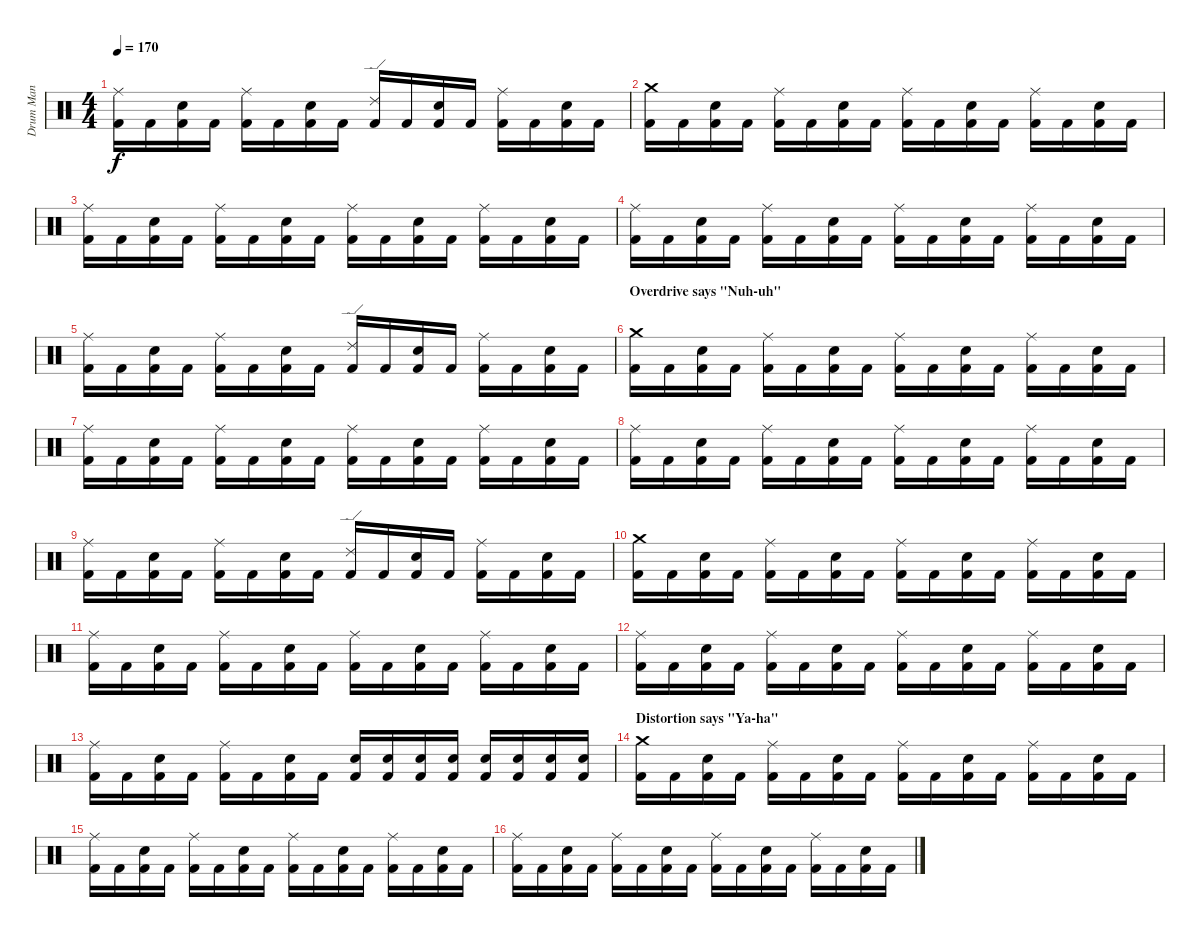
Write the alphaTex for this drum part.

\track ("Drum Man" "Drum Man") {instrument percussion}
\staff {score}
\articulation defaults
\ts (4 4)
\tempo 170
\clef neutral
\ks c
("Ride (middle)" "Kick (hit) 2").16{dy f} "Kick (hit) 2".16 ("Snare (hit) 2" "Kick (hit) 2").16 "Kick (hit) 2".16 ("Ride (middle)" "Kick (hit) 2").16 "Kick (hit) 2".16 ("Snare (hit) 2" "Kick (hit) 2").16 "Kick (hit) 2".16 ("Ride (edge) 2" "Kick (hit) 2").16 "Kick (hit) 2".16 ("Snare (hit) 2" "Kick (hit) 2").16 "Kick (hit) 2".16 ("Ride (middle)" "Kick (hit) 2").16 "Kick (hit) 2".16 ("Snare (hit) 2" "Kick (hit) 2").16 "Kick (hit) 2".16 |
("Crash medium (hit)" "Kick (hit) 2").16 "Kick (hit) 2".16 ("Snare (hit) 2" "Kick (hit) 2").16 "Kick (hit) 2".16 ("Ride (middle)" "Kick (hit) 2").16 "Kick (hit) 2".16 ("Snare (hit) 2" "Kick (hit) 2").16 "Kick (hit) 2".16 ("Ride (middle)" "Kick (hit) 2").16 "Kick (hit) 2".16 ("Snare (hit) 2" "Kick (hit) 2").16 "Kick (hit) 2".16 ("Ride (middle)" "Kick (hit) 2").16 "Kick (hit) 2".16 ("Snare (hit) 2" "Kick (hit) 2").16 "Kick (hit) 2".16 |
("Ride (middle)" "Kick (hit) 2").16 "Kick (hit) 2".16 ("Snare (hit) 2" "Kick (hit) 2").16 "Kick (hit) 2".16 ("Ride (middle)" "Kick (hit) 2").16 "Kick (hit) 2".16 ("Snare (hit) 2" "Kick (hit) 2").16 "Kick (hit) 2".16 ("Ride (middle)" "Kick (hit) 2").16 "Kick (hit) 2".16 ("Snare (hit) 2" "Kick (hit) 2").16 "Kick (hit) 2".16 ("Ride (middle)" "Kick (hit) 2").16 "Kick (hit) 2".16 ("Snare (hit) 2" "Kick (hit) 2").16 "Kick (hit) 2".16 |
("Ride (middle)" "Kick (hit) 2").16 "Kick (hit) 2".16 ("Snare (hit) 2" "Kick (hit) 2").16 "Kick (hit) 2".16 ("Ride (middle)" "Kick (hit) 2").16 "Kick (hit) 2".16 ("Snare (hit) 2" "Kick (hit) 2").16 "Kick (hit) 2".16 ("Ride (middle)" "Kick (hit) 2").16 "Kick (hit) 2".16 ("Snare (hit) 2" "Kick (hit) 2").16 "Kick (hit) 2".16 ("Ride (middle)" "Kick (hit) 2").16 "Kick (hit) 2".16 ("Snare (hit) 2" "Kick (hit) 2").16 "Kick (hit) 2".16 |
("Ride (middle)" "Kick (hit) 2").16 "Kick (hit) 2".16 ("Snare (hit) 2" "Kick (hit) 2").16 "Kick (hit) 2".16 ("Ride (middle)" "Kick (hit) 2").16 "Kick (hit) 2".16 ("Snare (hit) 2" "Kick (hit) 2").16 "Kick (hit) 2".16 ("Ride (edge) 2" "Kick (hit) 2").16 "Kick (hit) 2".16 ("Snare (hit) 2" "Kick (hit) 2").16 "Kick (hit) 2".16 ("Ride (middle)" "Kick (hit) 2").16 "Kick (hit) 2".16 ("Snare (hit) 2" "Kick (hit) 2").16 "Kick (hit) 2".16 |
\section ("" "Overdrive says \"Nuh-uh\"")
("Crash medium (hit)" "Kick (hit) 2").16 "Kick (hit) 2".16 ("Snare (hit) 2" "Kick (hit) 2").16 "Kick (hit) 2".16 ("Ride (middle)" "Kick (hit) 2").16 "Kick (hit) 2".16 ("Snare (hit) 2" "Kick (hit) 2").16 "Kick (hit) 2".16 ("Ride (middle)" "Kick (hit) 2").16 "Kick (hit) 2".16 ("Snare (hit) 2" "Kick (hit) 2").16 "Kick (hit) 2".16 ("Ride (middle)" "Kick (hit) 2").16 "Kick (hit) 2".16 ("Snare (hit) 2" "Kick (hit) 2").16 "Kick (hit) 2".16 |
("Ride (middle)" "Kick (hit) 2").16 "Kick (hit) 2".16 ("Snare (hit) 2" "Kick (hit) 2").16 "Kick (hit) 2".16 ("Ride (middle)" "Kick (hit) 2").16 "Kick (hit) 2".16 ("Snare (hit) 2" "Kick (hit) 2").16 "Kick (hit) 2".16 ("Ride (middle)" "Kick (hit) 2").16 "Kick (hit) 2".16 ("Snare (hit) 2" "Kick (hit) 2").16 "Kick (hit) 2".16 ("Ride (middle)" "Kick (hit) 2").16 "Kick (hit) 2".16 ("Snare (hit) 2" "Kick (hit) 2").16 "Kick (hit) 2".16 |
("Ride (middle)" "Kick (hit) 2").16 "Kick (hit) 2".16 ("Snare (hit) 2" "Kick (hit) 2").16 "Kick (hit) 2".16 ("Ride (middle)" "Kick (hit) 2").16 "Kick (hit) 2".16 ("Snare (hit) 2" "Kick (hit) 2").16 "Kick (hit) 2".16 ("Ride (middle)" "Kick (hit) 2").16 "Kick (hit) 2".16 ("Snare (hit) 2" "Kick (hit) 2").16 "Kick (hit) 2".16 ("Ride (middle)" "Kick (hit) 2").16 "Kick (hit) 2".16 ("Snare (hit) 2" "Kick (hit) 2").16 "Kick (hit) 2".16 |
("Ride (middle)" "Kick (hit) 2").16 "Kick (hit) 2".16 ("Snare (hit) 2" "Kick (hit) 2").16 "Kick (hit) 2".16 ("Ride (middle)" "Kick (hit) 2").16 "Kick (hit) 2".16 ("Snare (hit) 2" "Kick (hit) 2").16 "Kick (hit) 2".16 ("Ride (edge) 2" "Kick (hit) 2").16 "Kick (hit) 2".16 ("Snare (hit) 2" "Kick (hit) 2").16 "Kick (hit) 2".16 ("Ride (middle)" "Kick (hit) 2").16 "Kick (hit) 2".16 ("Snare (hit) 2" "Kick (hit) 2").16 "Kick (hit) 2".16 |
("Crash medium (hit)" "Kick (hit) 2").16 "Kick (hit) 2".16 ("Snare (hit) 2" "Kick (hit) 2").16 "Kick (hit) 2".16 ("Ride (middle)" "Kick (hit) 2").16 "Kick (hit) 2".16 ("Snare (hit) 2" "Kick (hit) 2").16 "Kick (hit) 2".16 ("Ride (middle)" "Kick (hit) 2").16 "Kick (hit) 2".16 ("Snare (hit) 2" "Kick (hit) 2").16 "Kick (hit) 2".16 ("Ride (middle)" "Kick (hit) 2").16 "Kick (hit) 2".16 ("Snare (hit) 2" "Kick (hit) 2").16 "Kick (hit) 2".16 |
("Ride (middle)" "Kick (hit) 2").16 "Kick (hit) 2".16 ("Snare (hit) 2" "Kick (hit) 2").16 "Kick (hit) 2".16 ("Ride (middle)" "Kick (hit) 2").16 "Kick (hit) 2".16 ("Snare (hit) 2" "Kick (hit) 2").16 "Kick (hit) 2".16 ("Ride (middle)" "Kick (hit) 2").16 "Kick (hit) 2".16 ("Snare (hit) 2" "Kick (hit) 2").16 "Kick (hit) 2".16 ("Ride (middle)" "Kick (hit) 2").16 "Kick (hit) 2".16 ("Snare (hit) 2" "Kick (hit) 2").16 "Kick (hit) 2".16 |
("Ride (middle)" "Kick (hit) 2").16 "Kick (hit) 2".16 ("Snare (hit) 2" "Kick (hit) 2").16 "Kick (hit) 2".16 ("Ride (middle)" "Kick (hit) 2").16 "Kick (hit) 2".16 ("Snare (hit) 2" "Kick (hit) 2").16 "Kick (hit) 2".16 ("Ride (middle)" "Kick (hit) 2").16 "Kick (hit) 2".16 ("Snare (hit) 2" "Kick (hit) 2").16 "Kick (hit) 2".16 ("Ride (middle)" "Kick (hit) 2").16 "Kick (hit) 2".16 ("Snare (hit) 2" "Kick (hit) 2").16 "Kick (hit) 2".16 |
("Ride (middle)" "Kick (hit) 2").16 "Kick (hit) 2".16 ("Snare (hit) 2" "Kick (hit) 2").16 "Kick (hit) 2".16 ("Ride (middle)" "Kick (hit) 2").16 "Kick (hit) 2".16 ("Snare (hit) 2" "Kick (hit) 2").16 "Kick (hit) 2".16 ("Electric Snare (hit)" "Kick (hit) 2").16 ("Electric Snare (hit)" "Kick (hit) 2").16 ("Electric Snare (hit)" "Kick (hit) 2").16 ("Electric Snare (hit)" "Kick (hit) 2").16 ("Electric Snare (hit)" "Kick (hit) 2").16 ("Electric Snare (hit)" "Kick (hit) 2").16 ("Electric Snare (hit)" "Kick (hit) 2").16 ("Electric Snare (hit)" "Kick (hit) 2").16 |
\section ("" "Distortion says \"Ya-ha\"")
("Crash medium (hit)" "Kick (hit) 2").16 "Kick (hit) 2".16 ("Snare (hit) 2" "Kick (hit) 2").16 "Kick (hit) 2".16 ("Ride (middle)" "Kick (hit) 2").16 "Kick (hit) 2".16 ("Snare (hit) 2" "Kick (hit) 2").16 "Kick (hit) 2".16 ("Ride (middle)" "Kick (hit) 2").16 "Kick (hit) 2".16 ("Snare (hit) 2" "Kick (hit) 2").16 "Kick (hit) 2".16 ("Ride (middle)" "Kick (hit) 2").16 "Kick (hit) 2".16 ("Snare (hit) 2" "Kick (hit) 2").16 "Kick (hit) 2".16 |
("Ride (middle)" "Kick (hit) 2").16 "Kick (hit) 2".16 ("Snare (hit) 2" "Kick (hit) 2").16 "Kick (hit) 2".16 ("Ride (middle)" "Kick (hit) 2").16 "Kick (hit) 2".16 ("Snare (hit) 2" "Kick (hit) 2").16 "Kick (hit) 2".16 ("Ride (middle)" "Kick (hit) 2").16 "Kick (hit) 2".16 ("Snare (hit) 2" "Kick (hit) 2").16 "Kick (hit) 2".16 ("Ride (middle)" "Kick (hit) 2").16 "Kick (hit) 2".16 ("Snare (hit) 2" "Kick (hit) 2").16 "Kick (hit) 2".16 |
("Ride (middle)" "Kick (hit) 2").16 "Kick (hit) 2".16 ("Snare (hit) 2" "Kick (hit) 2").16 "Kick (hit) 2".16 ("Ride (middle)" "Kick (hit) 2").16 "Kick (hit) 2".16 ("Snare (hit) 2" "Kick (hit) 2").16 "Kick (hit) 2".16 ("Ride (middle)" "Kick (hit) 2").16 "Kick (hit) 2".16 ("Snare (hit) 2" "Kick (hit) 2").16 "Kick (hit) 2".16 ("Ride (middle)" "Kick (hit) 2").16 "Kick (hit) 2".16 ("Snare (hit) 2" "Kick (hit) 2").16 "Kick (hit) 2".16
